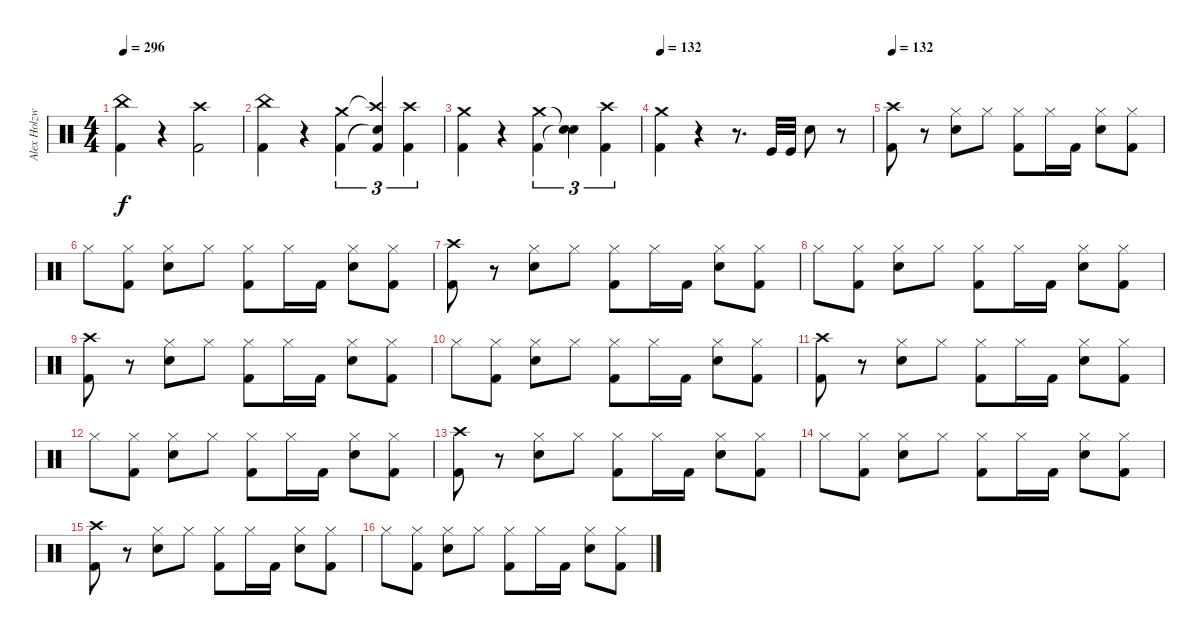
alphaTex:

\track ("Alex Holzwarth" "Alex Holzw") {instrument percussion}
\staff {score}
\articulation defaults
\ts (4 4)
\tempo 296
\clef neutral
\ks c
("China (hit)" "Kick (hit) 2").4{dy f} r.4 ("Crash high (hit)" "Kick (hit) 2").2 |
("China (hit)" "Kick (hit) 2").4 r.4 ("Crash medium (hit)" "Kick (hit) 2").4{tu (3 2)} ("Crash high (hit)"{t} "Snare (hit)"{t} "Kick (hit) 2").4{tu (3 2)} ("Crash high (hit)" "Kick (hit) 2").4{tu (3 2)} |
("Crash medium (hit)" "Kick (hit) 2").4 r.4 ("Crash medium (hit)" "Kick (hit) 2").4{tu (3 2)} ("Snare (hit)"{t} "Snare (hit)"{t}).4{tu (3 2)} ("Crash high (hit)" "Kick (hit) 2").4{tu (3 2)} |
\tempo 132
("Crash medium (hit)" "Kick (hit) 2").4 r.4 r.8{d} "Kick (hit)".32 "Kick (hit)".32 "Snare (hit) 2".8 r.8 |
\tempo 132
("Crash high (hit)" "Kick (hit) 2").8 r.8 ("Hi-Hat (closed)" "Snare (hit) 2").8 "Hi-Hat (closed)".8 ("Hi-Hat (closed)" "Kick (hit) 2").8 "Hi-Hat (closed)".16 "Kick (hit) 2".16 ("Hi-Hat (closed)" "Snare (hit) 2").8 ("Hi-Hat (closed)" "Kick (hit) 2").8 |
"Hi-Hat (closed)".8 ("Hi-Hat (closed)" "Kick (hit) 2").8 ("Hi-Hat (closed)" "Snare (hit) 2").8 "Hi-Hat (closed)".8 ("Hi-Hat (closed)" "Kick (hit) 2").8 "Hi-Hat (closed)".16 "Kick (hit) 2".16 ("Hi-Hat (closed)" "Snare (hit) 2").8 ("Hi-Hat (closed)" "Kick (hit) 2").8 |
("Crash high (hit)" "Kick (hit) 2").8 r.8 ("Hi-Hat (closed)" "Snare (hit) 2").8 "Hi-Hat (closed)".8 ("Hi-Hat (closed)" "Kick (hit) 2").8 "Hi-Hat (closed)".16 "Kick (hit) 2".16 ("Hi-Hat (closed)" "Snare (hit) 2").8 ("Hi-Hat (closed)" "Kick (hit) 2").8 |
"Hi-Hat (closed)".8 ("Hi-Hat (closed)" "Kick (hit) 2").8 ("Hi-Hat (closed)" "Snare (hit) 2").8 "Hi-Hat (closed)".8 ("Hi-Hat (closed)" "Kick (hit) 2").8 "Hi-Hat (closed)".16 "Kick (hit) 2".16 ("Hi-Hat (closed)" "Snare (hit) 2").8 ("Hi-Hat (closed)" "Kick (hit) 2").8 |
("Crash high (hit)" "Kick (hit) 2").8 r.8 ("Hi-Hat (closed)" "Snare (hit) 2").8 "Hi-Hat (closed)".8 ("Hi-Hat (closed)" "Kick (hit) 2").8 "Hi-Hat (closed)".16 "Kick (hit) 2".16 ("Hi-Hat (closed)" "Snare (hit) 2").8 ("Hi-Hat (closed)" "Kick (hit) 2").8 |
"Hi-Hat (closed)".8 ("Hi-Hat (closed)" "Kick (hit) 2").8 ("Hi-Hat (closed)" "Snare (hit) 2").8 "Hi-Hat (closed)".8 ("Hi-Hat (closed)" "Kick (hit) 2").8 "Hi-Hat (closed)".16 "Kick (hit) 2".16 ("Hi-Hat (closed)" "Snare (hit) 2").8 ("Hi-Hat (closed)" "Kick (hit) 2").8 |
("Crash high (hit)" "Kick (hit) 2").8 r.8 ("Hi-Hat (closed)" "Snare (hit) 2").8 "Hi-Hat (closed)".8 ("Hi-Hat (closed)" "Kick (hit) 2").8 "Hi-Hat (closed)".16 "Kick (hit) 2".16 ("Hi-Hat (closed)" "Snare (hit) 2").8 ("Hi-Hat (closed)" "Kick (hit) 2").8 |
"Hi-Hat (closed)".8 ("Hi-Hat (closed)" "Kick (hit) 2").8 ("Hi-Hat (closed)" "Snare (hit) 2").8 "Hi-Hat (closed)".8 ("Hi-Hat (closed)" "Kick (hit) 2").8 "Hi-Hat (closed)".16 "Kick (hit) 2".16 ("Hi-Hat (closed)" "Snare (hit) 2").8 ("Hi-Hat (closed)" "Kick (hit) 2").8 |
("Crash high (hit)" "Kick (hit) 2").8 r.8 ("Hi-Hat (closed)" "Snare (hit) 2").8 "Hi-Hat (closed)".8 ("Hi-Hat (closed)" "Kick (hit) 2").8 "Hi-Hat (closed)".16 "Kick (hit) 2".16 ("Hi-Hat (closed)" "Snare (hit) 2").8 ("Hi-Hat (closed)" "Kick (hit) 2").8 |
"Hi-Hat (closed)".8 ("Hi-Hat (closed)" "Kick (hit) 2").8 ("Hi-Hat (closed)" "Snare (hit) 2").8 "Hi-Hat (closed)".8 ("Hi-Hat (closed)" "Kick (hit) 2").8 "Hi-Hat (closed)".16 "Kick (hit) 2".16 ("Hi-Hat (closed)" "Snare (hit) 2").8 ("Hi-Hat (closed)" "Kick (hit) 2").8 |
("Crash high (hit)" "Kick (hit) 2").8 r.8 ("Hi-Hat (closed)" "Snare (hit) 2").8 "Hi-Hat (closed)".8 ("Hi-Hat (closed)" "Kick (hit) 2").8 "Hi-Hat (closed)".16 "Kick (hit) 2".16 ("Hi-Hat (closed)" "Snare (hit) 2").8 ("Hi-Hat (closed)" "Kick (hit) 2").8 |
"Hi-Hat (closed)".8 ("Hi-Hat (closed)" "Kick (hit) 2").8 ("Hi-Hat (closed)" "Snare (hit) 2").8 "Hi-Hat (closed)".8 ("Hi-Hat (closed)" "Kick (hit) 2").8 "Hi-Hat (closed)".16 "Kick (hit) 2".16 ("Hi-Hat (closed)" "Snare (hit) 2").8 ("Hi-Hat (closed)" "Kick (hit) 2").8
